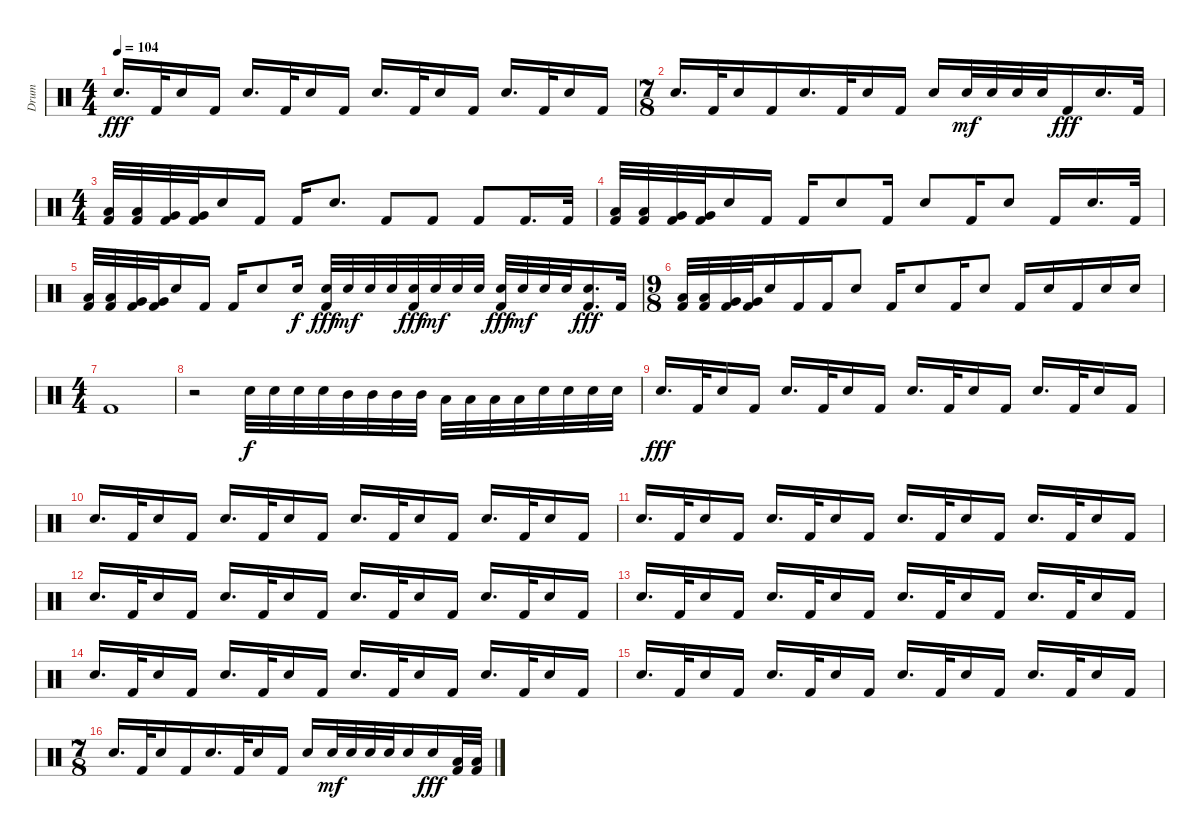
\track ("Drum" "Drum") {instrument percussion}
\staff {score}
\articulation defaults
\ts (4 4)
\tempo 104
\clef neutral
\ks c "Electric Snare (hit)".16{d dy fff} "Kick (hit) 2".32 "Electric Snare (hit)".16 "Kick (hit) 2".16 "Electric Snare (hit)".16{d} "Kick (hit) 2".32 "Electric Snare (hit)".16 "Kick (hit) 2".16 "Electric Snare (hit)".16{d} "Kick (hit) 2".32 "Electric Snare (hit)".16 "Kick (hit) 2".16 "Electric Snare (hit)".16{d} "Kick (hit) 2".32 "Electric Snare (hit)".16 "Kick (hit) 2".16
|
\ts (7 8)
"Electric Snare (hit)".16{d} "Kick (hit) 2".32 "Electric Snare (hit)".16 "Kick (hit) 2".16 "Electric Snare (hit)".16{d} "Kick (hit) 2".32 "Electric Snare (hit)".16 "Kick (hit) 2".16 "Electric Snare (hit)".16 "Electric Snare (hit)".32{dy mf} "Electric Snare (hit)".32 "Electric Snare (hit)".32 "Electric Snare (hit)".32 "Kick (hit) 2".16{dy fff} "Electric Snare (hit)".16{d} "Kick (hit) 2".32 |
\ts (4 4)
("Low Tom (hit)" "Kick (hit) 2").32 ("Low Tom (hit)" "Kick (hit) 2").32 ("Very Low Tom (hit)" "Kick (hit) 2").32 ("Very Low Tom (hit)" "Kick (hit) 2").32 "Electric Snare (hit)".16 "Kick (hit) 2".16 "Kick (hit) 2".16 "Electric Snare (hit)".8{d} "Kick (hit) 2".8 "Kick (hit) 2".8 "Kick (hit) 2".8 "Kick (hit) 2".16{d} "Kick (hit) 2".32 |
("Low Tom (hit)" "Kick (hit) 2").32 ("Low Tom (hit)" "Kick (hit) 2").32 ("Very Low Tom (hit)" "Kick (hit) 2").32 ("Very Low Tom (hit)" "Kick (hit) 2").32 "Electric Snare (hit)".16 "Kick (hit) 2".16 "Kick (hit) 2".16 "Electric Snare (hit)".8 "Kick (hit) 2".16 "Electric Snare (hit)".8 "Kick (hit) 2".16 "Electric Snare (hit)".8 "Kick (hit) 2".16 "Electric Snare (hit)".16{d} "Kick (hit) 2".32 |
("Low Tom (hit)" "Kick (hit) 2").32 ("Low Tom (hit)" "Kick (hit) 2").32 ("Very Low Tom (hit)" "Kick (hit) 2").32 ("Very Low Tom (hit)" "Kick (hit) 2").32 "Electric Snare (hit)".16 "Kick (hit) 2".16 "Kick (hit) 2".16 "Electric Snare (hit)".8 "Electric Snare (hit)".16{dy f} ("Electric Snare (hit)" "Kick (hit) 2").32{dy fff} "Electric Snare (hit)".32{dy mf} "Electric Snare (hit)".32 "Electric Snare (hit)".32 ("Electric Snare (hit)" "Kick (hit) 2").32{dy fff} "Electric Snare (hit)".32{dy mf} "Electric Snare (hit)".32 "Electric Snare (hit)".32 ("Electric Snare (hit)" "Kick (hit) 2").32{dy fff} "Electric Snare (hit)".32{dy mf} "Electric Snare (hit)".32 "Electric Snare (hit)".32 ("Electric Snare (hit)" "Kick (hit) 2").16{d dy fff} "Kick (hit) 2".32 |
\ts (9 8)
("Low Tom (hit)" "Kick (hit) 2").32 ("Low Tom (hit)" "Kick (hit) 2").32 ("Very Low Tom (hit)" "Kick (hit) 2").32 ("Very Low Tom (hit)" "Kick (hit) 2").32 "Electric Snare (hit)".16 "Kick (hit) 2".16 "Kick (hit) 2".16 "Electric Snare (hit)".8 "Kick (hit) 2".16 "Electric Snare (hit)".8 "Kick (hit) 2".16 "Electric Snare (hit)".8 "Kick (hit) 2".16 "Electric Snare (hit)".16 "Kick (hit) 2".16 "Electric Snare (hit)".16 "Electric Snare (hit)".16 |
\ts (4 4)
"Kick (hit) 2".1 |
r.2 "Electric Snare (hit)".32{dy f} "Electric Snare (hit)".32 "Electric Snare (hit)".32 "Electric Snare (hit)".32 "Mid Tom (hit)".32 "Mid Tom (hit)".32 "Mid Tom (hit)".32 "Mid Tom (hit)".32 "Low Tom (hit)".32 "Low Tom (hit)".32 "Low Tom (hit)".32 "Low Tom (hit)".32 "Electric Snare (hit)".32 "Electric Snare (hit)".32 "Electric Snare (hit)".32 "Electric Snare (hit)".32 |
"Electric Snare (hit)".16{d dy fff} "Kick (hit) 2".32 "Electric Snare (hit)".16 "Kick (hit) 2".16 "Electric Snare (hit)".16{d} "Kick (hit) 2".32 "Electric Snare (hit)".16 "Kick (hit) 2".16 "Electric Snare (hit)".16{d} "Kick (hit) 2".32 "Electric Snare (hit)".16 "Kick (hit) 2".16 "Electric Snare (hit)".16{d} "Kick (hit) 2".32 "Electric Snare (hit)".16 "Kick (hit) 2".16 |
"Electric Snare (hit)".16{d} "Kick (hit) 2".32 "Electric Snare (hit)".16 "Kick (hit) 2".16 "Electric Snare (hit)".16{d} "Kick (hit) 2".32 "Electric Snare (hit)".16 "Kick (hit) 2".16 "Electric Snare (hit)".16{d} "Kick (hit) 2".32 "Electric Snare (hit)".16 "Kick (hit) 2".16 "Electric Snare (hit)".16{d} "Kick (hit) 2".32 "Electric Snare (hit)".16 "Kick (hit) 2".16 |
"Electric Snare (hit)".16{d} "Kick (hit) 2".32 "Electric Snare (hit)".16 "Kick (hit) 2".16 "Electric Snare (hit)".16{d} "Kick (hit) 2".32 "Electric Snare (hit)".16 "Kick (hit) 2".16 "Electric Snare (hit)".16{d} "Kick (hit) 2".32 "Electric Snare (hit)".16 "Kick (hit) 2".16 "Electric Snare (hit)".16{d} "Kick (hit) 2".32 "Electric Snare (hit)".16 "Kick (hit) 2".16 |
"Electric Snare (hit)".16{d} "Kick (hit) 2".32 "Electric Snare (hit)".16 "Kick (hit) 2".16 "Electric Snare (hit)".16{d} "Kick (hit) 2".32 "Electric Snare (hit)".16 "Kick (hit) 2".16 "Electric Snare (hit)".16{d} "Kick (hit) 2".32 "Electric Snare (hit)".16 "Kick (hit) 2".16 "Electric Snare (hit)".16{d} "Kick (hit) 2".32 "Electric Snare (hit)".16 "Kick (hit) 2".16 |
"Electric Snare (hit)".16{d} "Kick (hit) 2".32 "Electric Snare (hit)".16 "Kick (hit) 2".16 "Electric Snare (hit)".16{d} "Kick (hit) 2".32 "Electric Snare (hit)".16 "Kick (hit) 2".16 "Electric Snare (hit)".16{d} "Kick (hit) 2".32 "Electric Snare (hit)".16 "Kick (hit) 2".16 "Electric Snare (hit)".16{d} "Kick (hit) 2".32 "Electric Snare (hit)".16 "Kick (hit) 2".16 |
"Electric Snare (hit)".16{d} "Kick (hit) 2".32 "Electric Snare (hit)".16 "Kick (hit) 2".16 "Electric Snare (hit)".16{d} "Kick (hit) 2".32 "Electric Snare (hit)".16 "Kick (hit) 2".16 "Electric Snare (hit)".16{d} "Kick (hit) 2".32 "Electric Snare (hit)".16 "Kick (hit) 2".16 "Electric Snare (hit)".16{d} "Kick (hit) 2".32 "Electric Snare (hit)".16 "Kick (hit) 2".16 |
"Electric Snare (hit)".16{d} "Kick (hit) 2".32 "Electric Snare (hit)".16 "Kick (hit) 2".16 "Electric Snare (hit)".16{d} "Kick (hit) 2".32 "Electric Snare (hit)".16 "Kick (hit) 2".16 "Electric Snare (hit)".16{d} "Kick (hit) 2".32 "Electric Snare (hit)".16 "Kick (hit) 2".16 "Electric Snare (hit)".16{d} "Kick (hit) 2".32 "Electric Snare (hit)".16 "Kick (hit) 2".16 |
\ts (7 8)
"Electric Snare (hit)".16{d} "Kick (hit) 2".32 "Electric Snare (hit)".16 "Kick (hit) 2".16 "Electric Snare (hit)".16{d} "Kick (hit) 2".32 "Electric Snare (hit)".16 "Kick (hit) 2".16 "Electric Snare (hit)".16 "Electric Snare (hit)".32{dy mf} "Electric Snare (hit)".32 "Electric Snare (hit)".32 "Electric Snare (hit)".32 "Electric Snare (hit)".16 "Electric Snare (hit)".16{dy fff} ("Low Tom (hit)" "Kick (hit) 2").32 ("Low Tom (hit)" "Kick (hit) 2").32
